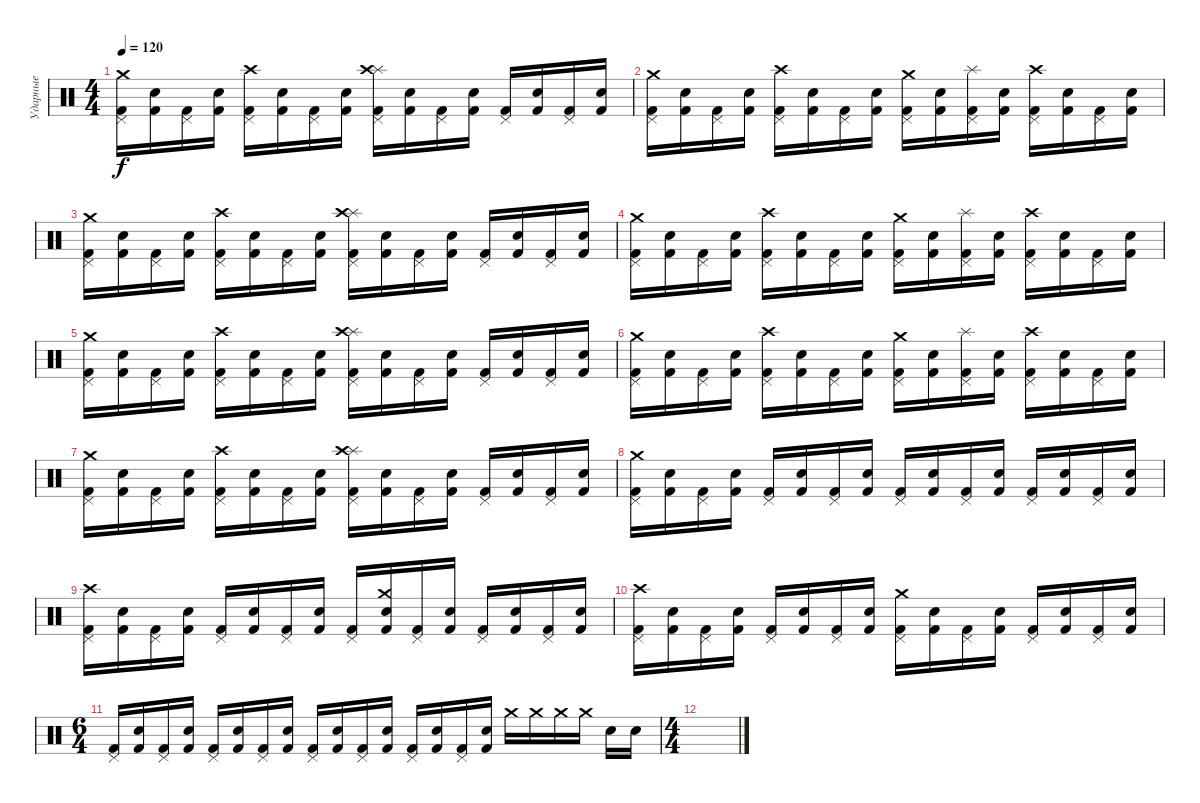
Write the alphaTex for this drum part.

\track ("Ударные" "Ударные") {mute instrument percussion}
\staff {score}
\articulation defaults
\ts (4 4)
\tempo 120
\clef neutral
\ks c
("Kick (hit) 2" "Pedal Hi-Hat (hit)" "Crash medium (hit)").16{dy f} ("Kick (hit) 2" "Electric Snare (hit)").16 ("Kick (hit) 2" "Pedal Hi-Hat (hit)").16 ("Kick (hit) 2" "Electric Snare (hit)").16 ("Kick (hit) 2" "Pedal Hi-Hat (hit)" "Crash high (hit)").16 ("Kick (hit) 2" "Electric Snare (hit)").16 ("Kick (hit) 2" "Pedal Hi-Hat (hit)").16 ("Kick (hit) 2" "Electric Snare (hit)").16 ("Kick (hit) 2" "Pedal Hi-Hat (hit)" "Splash (hit)" "Crash high (hit)").16 ("Kick (hit) 2" "Electric Snare (hit)").16 ("Kick (hit) 2" "Pedal Hi-Hat (hit)").16 ("Kick (hit) 2" "Electric Snare (hit)").16 ("Kick (hit) 2" "Pedal Hi-Hat (hit)").16 ("Kick (hit) 2" "Electric Snare (hit)").16 ("Kick (hit) 2" "Pedal Hi-Hat (hit)").16 ("Kick (hit) 2" "Electric Snare (hit)").16 |
("Kick (hit) 2" "Pedal Hi-Hat (hit)" "Crash medium (hit)").16 ("Kick (hit) 2" "Electric Snare (hit)").16 ("Kick (hit) 2" "Pedal Hi-Hat (hit)").16 ("Kick (hit) 2" "Electric Snare (hit)").16 ("Kick (hit) 2" "Pedal Hi-Hat (hit)" "Crash high (hit)").16 ("Kick (hit) 2" "Electric Snare (hit)").16 ("Kick (hit) 2" "Pedal Hi-Hat (hit)").16 ("Kick (hit) 2" "Electric Snare (hit)").16 ("Kick (hit) 2" "Pedal Hi-Hat (hit)" "Crash medium (hit)").16 ("Kick (hit) 2" "Electric Snare (hit)").16 ("Kick (hit) 2" "Pedal Hi-Hat (hit)" "Splash (hit)").16 ("Kick (hit) 2" "Electric Snare (hit)").16 ("Kick (hit) 2" "Pedal Hi-Hat (hit)" "Crash high (hit)").16 ("Kick (hit) 2" "Electric Snare (hit)").16 ("Kick (hit) 2" "Pedal Hi-Hat (hit)").16 ("Kick (hit) 2" "Electric Snare (hit)").16 |
("Kick (hit) 2" "Pedal Hi-Hat (hit)" "Crash medium (hit)").16 ("Kick (hit) 2" "Electric Snare (hit)").16 ("Kick (hit) 2" "Pedal Hi-Hat (hit)").16 ("Kick (hit) 2" "Electric Snare (hit)").16 ("Kick (hit) 2" "Pedal Hi-Hat (hit)" "Crash high (hit)").16 ("Kick (hit) 2" "Electric Snare (hit)").16 ("Kick (hit) 2" "Pedal Hi-Hat (hit)").16 ("Kick (hit) 2" "Electric Snare (hit)").16 ("Kick (hit) 2" "Pedal Hi-Hat (hit)" "Splash (hit)" "Crash high (hit)").16 ("Kick (hit) 2" "Electric Snare (hit)").16 ("Kick (hit) 2" "Pedal Hi-Hat (hit)").16 ("Kick (hit) 2" "Electric Snare (hit)").16 ("Kick (hit) 2" "Pedal Hi-Hat (hit)").16 ("Kick (hit) 2" "Electric Snare (hit)").16 ("Kick (hit) 2" "Pedal Hi-Hat (hit)").16 ("Kick (hit) 2" "Electric Snare (hit)").16 |
("Kick (hit) 2" "Pedal Hi-Hat (hit)" "Crash medium (hit)").16 ("Kick (hit) 2" "Electric Snare (hit)").16 ("Kick (hit) 2" "Pedal Hi-Hat (hit)").16 ("Kick (hit) 2" "Electric Snare (hit)").16 ("Kick (hit) 2" "Pedal Hi-Hat (hit)" "Crash high (hit)").16 ("Kick (hit) 2" "Electric Snare (hit)").16 ("Kick (hit) 2" "Pedal Hi-Hat (hit)").16 ("Kick (hit) 2" "Electric Snare (hit)").16 ("Kick (hit) 2" "Pedal Hi-Hat (hit)" "Crash medium (hit)").16 ("Kick (hit) 2" "Electric Snare (hit)").16 ("Kick (hit) 2" "Pedal Hi-Hat (hit)" "Splash (hit)").16 ("Kick (hit) 2" "Electric Snare (hit)").16 ("Kick (hit) 2" "Pedal Hi-Hat (hit)" "Crash high (hit)").16 ("Kick (hit) 2" "Electric Snare (hit)").16 ("Kick (hit) 2" "Pedal Hi-Hat (hit)").16 ("Kick (hit) 2" "Electric Snare (hit)").16 |
("Kick (hit) 2" "Pedal Hi-Hat (hit)" "Crash medium (hit)").16 ("Kick (hit) 2" "Electric Snare (hit)").16 ("Kick (hit) 2" "Pedal Hi-Hat (hit)").16 ("Kick (hit) 2" "Electric Snare (hit)").16 ("Kick (hit) 2" "Pedal Hi-Hat (hit)" "Crash high (hit)").16 ("Kick (hit) 2" "Electric Snare (hit)").16 ("Kick (hit) 2" "Pedal Hi-Hat (hit)").16 ("Kick (hit) 2" "Electric Snare (hit)").16 ("Kick (hit) 2" "Pedal Hi-Hat (hit)" "Splash (hit)" "Crash high (hit)").16 ("Kick (hit) 2" "Electric Snare (hit)").16 ("Kick (hit) 2" "Pedal Hi-Hat (hit)").16 ("Kick (hit) 2" "Electric Snare (hit)").16 ("Kick (hit) 2" "Pedal Hi-Hat (hit)").16 ("Kick (hit) 2" "Electric Snare (hit)").16 ("Kick (hit) 2" "Pedal Hi-Hat (hit)").16 ("Kick (hit) 2" "Electric Snare (hit)").16 |
("Kick (hit) 2" "Pedal Hi-Hat (hit)" "Crash medium (hit)").16 ("Kick (hit) 2" "Electric Snare (hit)").16 ("Kick (hit) 2" "Pedal Hi-Hat (hit)").16 ("Kick (hit) 2" "Electric Snare (hit)").16 ("Kick (hit) 2" "Pedal Hi-Hat (hit)" "Crash high (hit)").16 ("Kick (hit) 2" "Electric Snare (hit)").16 ("Kick (hit) 2" "Pedal Hi-Hat (hit)").16 ("Kick (hit) 2" "Electric Snare (hit)").16 ("Kick (hit) 2" "Pedal Hi-Hat (hit)" "Crash medium (hit)").16 ("Kick (hit) 2" "Electric Snare (hit)").16 ("Kick (hit) 2" "Pedal Hi-Hat (hit)" "Splash (hit)").16 ("Kick (hit) 2" "Electric Snare (hit)").16 ("Kick (hit) 2" "Pedal Hi-Hat (hit)" "Crash high (hit)").16 ("Kick (hit) 2" "Electric Snare (hit)").16 ("Kick (hit) 2" "Pedal Hi-Hat (hit)").16 ("Kick (hit) 2" "Electric Snare (hit)").16 |
("Kick (hit) 2" "Pedal Hi-Hat (hit)" "Crash medium (hit)").16 ("Kick (hit) 2" "Electric Snare (hit)").16 ("Kick (hit) 2" "Pedal Hi-Hat (hit)").16 ("Kick (hit) 2" "Electric Snare (hit)").16 ("Kick (hit) 2" "Pedal Hi-Hat (hit)" "Crash high (hit)").16 ("Kick (hit) 2" "Electric Snare (hit)").16 ("Kick (hit) 2" "Pedal Hi-Hat (hit)").16 ("Kick (hit) 2" "Electric Snare (hit)").16 ("Kick (hit) 2" "Pedal Hi-Hat (hit)" "Splash (hit)" "Crash high (hit)").16 ("Kick (hit) 2" "Electric Snare (hit)").16 ("Kick (hit) 2" "Pedal Hi-Hat (hit)").16 ("Kick (hit) 2" "Electric Snare (hit)").16 ("Kick (hit) 2" "Pedal Hi-Hat (hit)").16 ("Kick (hit) 2" "Electric Snare (hit)").16 ("Kick (hit) 2" "Pedal Hi-Hat (hit)").16 ("Kick (hit) 2" "Electric Snare (hit)").16 |
("Kick (hit) 2" "Pedal Hi-Hat (hit)" "Crash medium (hit)").16 ("Kick (hit) 2" "Electric Snare (hit)").16 ("Kick (hit) 2" "Pedal Hi-Hat (hit)").16 ("Kick (hit) 2" "Electric Snare (hit)").16 ("Kick (hit) 2" "Pedal Hi-Hat (hit)").16 ("Kick (hit) 2" "Electric Snare (hit)").16 ("Kick (hit) 2" "Pedal Hi-Hat (hit)").16 ("Kick (hit) 2" "Electric Snare (hit)").16 ("Kick (hit) 2" "Pedal Hi-Hat (hit)").16 ("Kick (hit) 2" "Electric Snare (hit)").16 ("Kick (hit) 2" "Pedal Hi-Hat (hit)").16 ("Kick (hit) 2" "Electric Snare (hit)").16 ("Kick (hit) 2" "Pedal Hi-Hat (hit)").16 ("Kick (hit) 2" "Electric Snare (hit)").16 ("Kick (hit) 2" "Pedal Hi-Hat (hit)").16 ("Kick (hit) 2" "Electric Snare (hit)").16 |
("Kick (hit) 2" "Pedal Hi-Hat (hit)" "Crash high (hit)").16 ("Kick (hit) 2" "Electric Snare (hit)").16 ("Kick (hit) 2" "Pedal Hi-Hat (hit)").16 ("Kick (hit) 2" "Electric Snare (hit)").16 ("Kick (hit) 2" "Pedal Hi-Hat (hit)").16 ("Kick (hit) 2" "Electric Snare (hit)").16 ("Kick (hit) 2" "Pedal Hi-Hat (hit)").16 ("Kick (hit) 2" "Electric Snare (hit)").16 ("Kick (hit) 2" "Pedal Hi-Hat (hit)").16 ("Kick (hit) 2" "Electric Snare (hit)" "Crash medium (hit)").16 ("Kick (hit) 2" "Pedal Hi-Hat (hit)").16 ("Kick (hit) 2" "Electric Snare (hit)").16 ("Kick (hit) 2" "Pedal Hi-Hat (hit)").16 ("Kick (hit) 2" "Electric Snare (hit)").16 ("Kick (hit) 2" "Pedal Hi-Hat (hit)").16 ("Kick (hit) 2" "Electric Snare (hit)").16 |
("Kick (hit) 2" "Pedal Hi-Hat (hit)" "Crash high (hit)").16 ("Kick (hit) 2" "Electric Snare (hit)").16 ("Kick (hit) 2" "Pedal Hi-Hat (hit)").16 ("Kick (hit) 2" "Electric Snare (hit)").16 ("Kick (hit) 2" "Pedal Hi-Hat (hit)").16 ("Kick (hit) 2" "Electric Snare (hit)").16 ("Kick (hit) 2" "Pedal Hi-Hat (hit)").16 ("Kick (hit) 2" "Electric Snare (hit)").16 ("Kick (hit) 2" "Pedal Hi-Hat (hit)" "Crash medium (hit)").16 ("Kick (hit) 2" "Electric Snare (hit)").16 ("Kick (hit) 2" "Pedal Hi-Hat (hit)").16 ("Kick (hit) 2" "Electric Snare (hit)").16 ("Kick (hit) 2" "Pedal Hi-Hat (hit)").16 ("Kick (hit) 2" "Electric Snare (hit)").16 ("Kick (hit) 2" "Pedal Hi-Hat (hit)").16 ("Kick (hit) 2" "Electric Snare (hit)").16 |
\ts (6 4)
("Kick (hit) 2" "Pedal Hi-Hat (hit)").16 ("Kick (hit) 2" "Electric Snare (hit)").16 ("Kick (hit) 2" "Pedal Hi-Hat (hit)").16 ("Kick (hit) 2" "Electric Snare (hit)").16 ("Kick (hit) 2" "Pedal Hi-Hat (hit)").16 ("Kick (hit) 2" "Electric Snare (hit)").16 ("Kick (hit) 2" "Pedal Hi-Hat (hit)").16 ("Kick (hit) 2" "Electric Snare (hit)").16 ("Kick (hit) 2" "Pedal Hi-Hat (hit)").16 ("Kick (hit) 2" "Electric Snare (hit)").16 ("Kick (hit) 2" "Pedal Hi-Hat (hit)").16 ("Kick (hit) 2" "Electric Snare (hit)").16 ("Kick (hit) 2" "Pedal Hi-Hat (hit)").16 ("Kick (hit) 2" "Electric Snare (hit)").16 ("Kick (hit) 2" "Pedal Hi-Hat (hit)").16 ("Kick (hit) 2" "Electric Snare (hit)").16 "Crash medium (hit)".16 "Crash medium (hit)".16 "Crash medium (hit)".16 "Crash medium (hit)".16 "Snare (hit)".16 "Snare (hit)".16 |
\ts (4 4)
